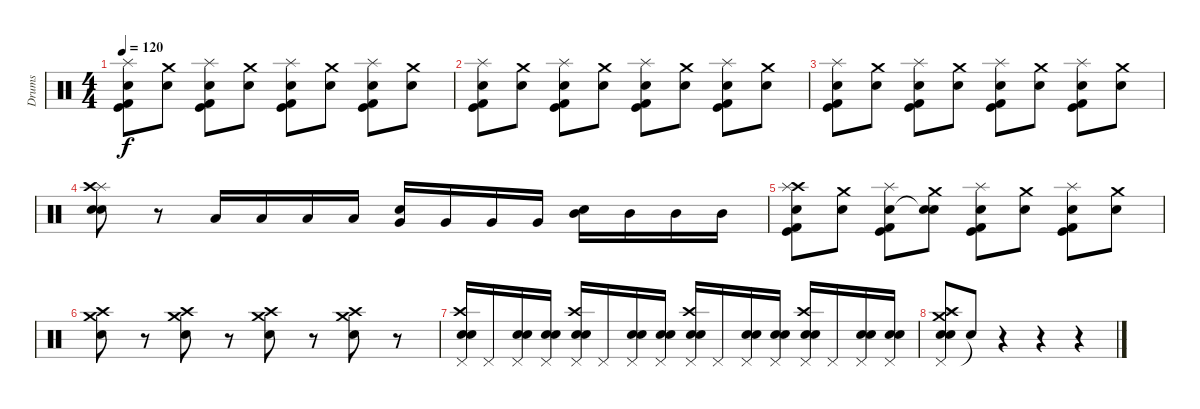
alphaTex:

\track ("Drums" "Drums") {instrument percussion}
\staff {score}
\articulation defaults
\ts (4 4)
\tempo 120
\clef neutral
\ks c
("Kick (hit)" "Electric Snare (hit)" "Kick (hit) 2" "Splash (hit)").8{dy f} ("Crash medium (hit)" "Snare (hit) 2").8 ("Kick (hit)" "Electric Snare (hit)" "Kick (hit) 2" "Splash (hit)").8 ("Crash medium (hit)" "Snare (hit) 2").8 ("Kick (hit)" "Electric Snare (hit)" "Kick (hit) 2" "Splash (hit)").8 ("Crash medium (hit)" "Snare (hit) 2").8 ("Kick (hit)" "Electric Snare (hit)" "Kick (hit) 2" "Splash (hit)").8 ("Crash medium (hit)" "Snare (hit) 2").8 |
("Kick (hit)" "Electric Snare (hit)" "Kick (hit) 2" "Splash (hit)").8 ("Crash medium (hit)" "Snare (hit) 2").8 ("Kick (hit)" "Electric Snare (hit)" "Kick (hit) 2" "Splash (hit)").8 ("Crash medium (hit)" "Snare (hit) 2").8 ("Kick (hit)" "Electric Snare (hit)" "Kick (hit) 2" "Splash (hit)").8 ("Crash medium (hit)" "Snare (hit) 2").8 ("Kick (hit)" "Electric Snare (hit)" "Kick (hit) 2" "Splash (hit)").8 ("Crash medium (hit)" "Snare (hit) 2").8 |
("Kick (hit)" "Electric Snare (hit)" "Kick (hit) 2" "Splash (hit)").8 ("Crash medium (hit)" "Snare (hit) 2").8 ("Kick (hit)" "Electric Snare (hit)" "Kick (hit) 2" "Splash (hit)").8 ("Crash medium (hit)" "Snare (hit) 2").8 ("Kick (hit)" "Electric Snare (hit)" "Kick (hit) 2" "Splash (hit)").8 ("Crash medium (hit)" "Snare (hit) 2").8 ("Kick (hit)" "Electric Snare (hit)" "Kick (hit) 2" "Splash (hit)").8 ("Crash medium (hit)" "Snare (hit) 2").8 |
("Splash (hit)" "Snare (hit) 2" "Electric Snare (hit)" "Crash high (hit)").8 r.8 "Low Floor Tom (hit)".16 "Low Floor Tom (hit)".16 "Low Floor Tom (hit)".16 "Low Floor Tom (hit)".16 ("Snare (hit) 2" "Very Low Tom (hit)").16 "Very Low Tom (hit)".16 "Very Low Tom (hit)".16 "Very Low Tom (hit)".16 ("Electric Snare (hit)" "Mid Tom (hit)").16 "Mid Tom (hit)".16 "Mid Tom (hit)".16 "Mid Tom (hit)".16 |
("Kick (hit)" "Crash high (hit)" "Electric Snare (hit)" "Kick (hit) 2" "Splash (hit)").8 ("Crash medium (hit)" "Snare (hit) 2").8 ("Kick (hit)" "Electric Snare (hit)" "Kick (hit) 2" "Splash (hit)").8 ("Crash medium (hit)" "Snare (hit)"{t} "Snare (hit) 2").8 ("Kick (hit)" "Electric Snare (hit)" "Kick (hit) 2" "Splash (hit)").8 ("Crash medium (hit)" "Snare (hit) 2").8 ("Kick (hit)" "Electric Snare (hit)" "Kick (hit) 2" "Splash (hit)").8 ("Crash medium (hit)" "Snare (hit) 2").8 |
("Electric Snare (hit)" "Crash medium (hit)" "Crash high (hit)").8 r.8 ("Electric Snare (hit)" "Crash medium (hit)" "Crash high (hit)").8 r.8 ("Electric Snare (hit)" "Crash medium (hit)" "Crash high (hit)").8 r.8 ("Electric Snare (hit)" "Crash medium (hit)" "Crash high (hit)").8 r.8 |
("Pedal Hi-Hat (hit)" "Crash high (hit)" "Electric Snare (hit)" "Snare (hit) 2").16 "Pedal Hi-Hat (hit)".16 ("Pedal Hi-Hat (hit)" "Electric Snare (hit)" "Snare (hit) 2").16 ("Pedal Hi-Hat (hit)" "Electric Snare (hit)" "Snare (hit) 2").16 ("Pedal Hi-Hat (hit)" "Crash high (hit)" "Electric Snare (hit)" "Snare (hit) 2").16 "Pedal Hi-Hat (hit)".16 ("Pedal Hi-Hat (hit)" "Electric Snare (hit)" "Snare (hit) 2").16 ("Pedal Hi-Hat (hit)" "Electric Snare (hit)" "Snare (hit) 2").16 ("Pedal Hi-Hat (hit)" "Crash high (hit)" "Electric Snare (hit)" "Snare (hit) 2").16 "Pedal Hi-Hat (hit)".16 ("Pedal Hi-Hat (hit)" "Electric Snare (hit)" "Snare (hit) 2").16 ("Pedal Hi-Hat (hit)" "Electric Snare (hit)" "Snare (hit) 2").16 ("Pedal Hi-Hat (hit)" "Crash high (hit)" "Electric Snare (hit)" "Snare (hit) 2").16 "Pedal Hi-Hat (hit)".16 ("Pedal Hi-Hat (hit)" "Electric Snare (hit)" "Snare (hit) 2").16 ("Pedal Hi-Hat (hit)" "Electric Snare (hit)" "Snare (hit) 2").16 |
("Pedal Hi-Hat (hit)" "Splash (hit)" "Crash medium (hit)" "Snare (hit) 2" "Electric Snare (hit)" "Crash high (hit)").8 "Snare (hit)"{t}.8 r.4 r.4 r.4
